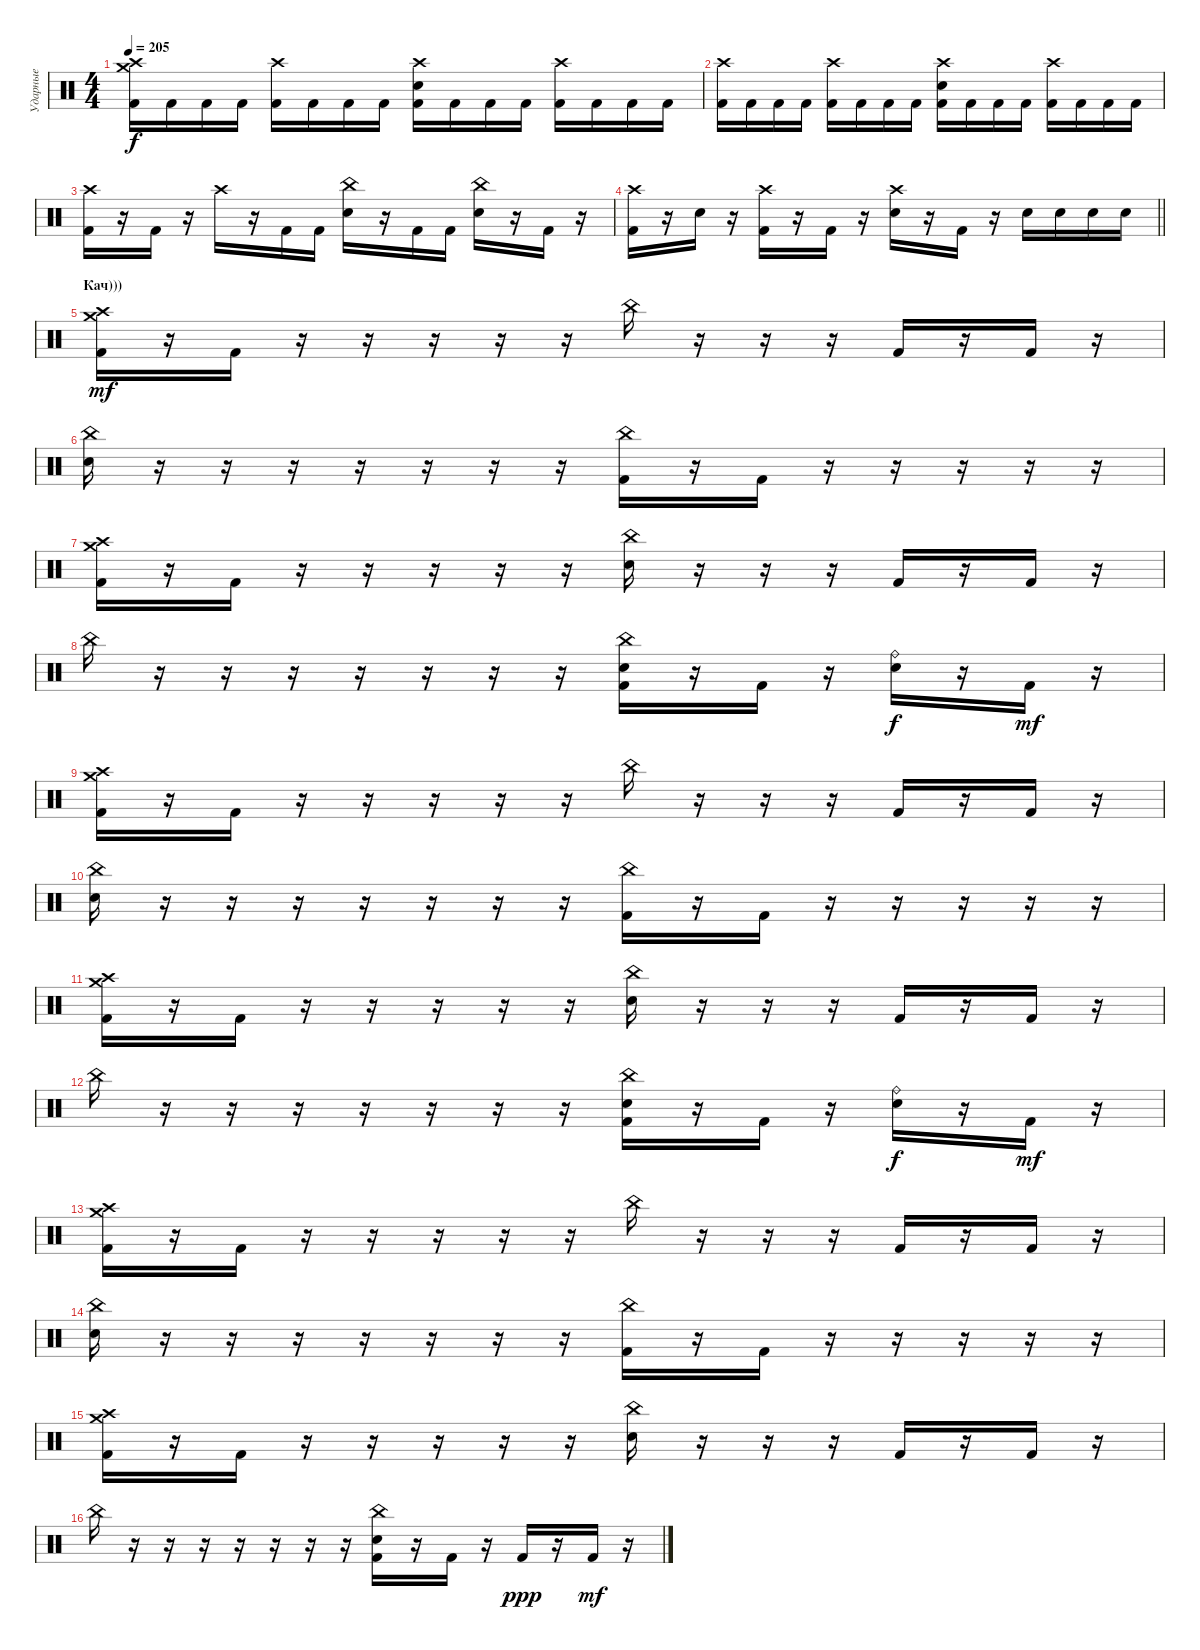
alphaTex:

\track ("Ударные" "Ударные") {instrument percussion}
\staff {score}
\articulation defaults
\ts (4 4)
\tempo 205
\clef neutral
\ks c
("Crash high (hit)" "Crash medium (hit)" "Kick (hit) 2").16{dy f} "Kick (hit) 2".16 "Kick (hit) 2".16 "Kick (hit) 2".16 ("Crash high (hit)" "Kick (hit) 2").16 "Kick (hit) 2".16 "Kick (hit) 2".16 "Kick (hit) 2".16 ("Crash high (hit)" "Electric Snare (hit)" "Kick (hit) 2").16 "Kick (hit) 2".16 "Kick (hit) 2".16 "Kick (hit) 2".16 ("Crash high (hit)" "Kick (hit) 2").16 "Kick (hit) 2".16 "Kick (hit) 2".16 "Kick (hit) 2".16 |
("Crash high (hit)" "Kick (hit) 2").16 "Kick (hit) 2".16 "Kick (hit) 2".16 "Kick (hit) 2".16 ("Crash high (hit)" "Kick (hit) 2").16 "Kick (hit) 2".16 "Kick (hit) 2".16 "Kick (hit) 2".16 ("Crash high (hit)" "Electric Snare (hit)" "Kick (hit) 2").16 "Kick (hit) 2".16 "Kick (hit) 2".16 "Kick (hit) 2".16 ("Crash high (hit)" "Kick (hit) 2").16 "Kick (hit) 2".16 "Kick (hit) 2".16 "Kick (hit) 2".16 |
("Crash high (hit)" "Kick (hit) 2").16 r.16 "Kick (hit) 2".16 r.16 "Crash high (hit)".16 r.16 "Kick (hit) 2".16 "Kick (hit) 2".16 ("China (hit)" "Electric Snare (hit)").16 r.16 "Kick (hit) 2".16 "Kick (hit) 2".16 ("China (hit)" "Electric Snare (hit)").16 r.16 "Kick (hit) 2".16 r.16 |
\barLineRight lightlight
("Crash high (hit)" "Kick (hit) 2").16 r.16 "Electric Snare (hit)".16 r.16 ("Crash high (hit)" "Kick (hit) 2").16 r.16 "Kick (hit) 2".16 r.16 ("Crash high (hit)" "Electric Snare (hit)").16 r.16 "Kick (hit) 2".16 r.16 "Electric Snare (hit)".16 "Electric Snare (hit)".16 "Electric Snare (hit)".16 "Electric Snare (hit)".16 |
\section ("" "Кач)))")
("Crash high (hit)" "Crash medium (hit)" "Kick (hit) 2").16{dy mf} r.16 "Kick (hit) 2".16 r.16 r.16 r.16 r.16 r.16 "China (hit)".16 r.16 r.16 r.16 "Kick (hit) 2".16 r.16 "Kick (hit) 2".16 r.16 |
("China (hit)" "Electric Snare (hit)").16 r.16 r.16 r.16 r.16 r.16 r.16 r.16 ("China (hit)" "Kick (hit) 2").16 r.16 "Kick (hit) 2".16 r.16 r.16 r.16 r.16 r.16 |
("Crash high (hit)" "Crash medium (hit)" "Kick (hit) 2").16 r.16 "Kick (hit) 2".16 r.16 r.16 r.16 r.16 r.16 ("China (hit)" "Electric Snare (hit)").16 r.16 r.16 r.16 "Kick (hit) 2".16 r.16 "Kick (hit) 2".16 r.16 |
"China (hit)".16 r.16 r.16 r.16 r.16 r.16 r.16 r.16 ("China (hit)" "Electric Snare (hit)" "Kick (hit) 2").16 r.16 "Kick (hit) 2".16 r.16 ("Ride (bell)" "Electric Snare (hit)").16{dy f} r.16 "Kick (hit) 2".16{dy mf} r.16 |
("Crash high (hit)" "Crash medium (hit)" "Kick (hit) 2").16 r.16 "Kick (hit) 2".16 r.16 r.16 r.16 r.16 r.16 "China (hit)".16 r.16 r.16 r.16 "Kick (hit) 2".16 r.16 "Kick (hit) 2".16 r.16 |
("China (hit)" "Electric Snare (hit)").16 r.16 r.16 r.16 r.16 r.16 r.16 r.16 ("China (hit)" "Kick (hit) 2").16 r.16 "Kick (hit) 2".16 r.16 r.16 r.16 r.16 r.16 |
("Crash high (hit)" "Crash medium (hit)" "Kick (hit) 2").16 r.16 "Kick (hit) 2".16 r.16 r.16 r.16 r.16 r.16 ("China (hit)" "Electric Snare (hit)").16 r.16 r.16 r.16 "Kick (hit) 2".16 r.16 "Kick (hit) 2".16 r.16 |
"China (hit)".16 r.16 r.16 r.16 r.16 r.16 r.16 r.16 ("China (hit)" "Electric Snare (hit)" "Kick (hit) 2").16 r.16 "Kick (hit) 2".16 r.16 ("Ride (bell)" "Electric Snare (hit)").16{dy f} r.16 "Kick (hit) 2".16{dy mf} r.16 |
("Crash high (hit)" "Crash medium (hit)" "Kick (hit) 2").16 r.16 "Kick (hit) 2".16 r.16 r.16 r.16 r.16 r.16 "China (hit)".16 r.16 r.16 r.16 "Kick (hit) 2".16 r.16 "Kick (hit) 2".16 r.16 |
("China (hit)" "Electric Snare (hit)").16 r.16 r.16 r.16 r.16 r.16 r.16 r.16 ("China (hit)" "Kick (hit) 2").16 r.16 "Kick (hit) 2".16 r.16 r.16 r.16 r.16 r.16 |
("Crash high (hit)" "Crash medium (hit)" "Kick (hit) 2").16 r.16 "Kick (hit) 2".16 r.16 r.16 r.16 r.16 r.16 ("China (hit)" "Electric Snare (hit)").16 r.16 r.16 r.16 "Kick (hit) 2".16 r.16 "Kick (hit) 2".16 r.16 |
"China (hit)".16 r.16 r.16 r.16 r.16 r.16 r.16 r.16 ("China (hit)" "Electric Snare (hit)" "Kick (hit) 2").16 r.16 "Kick (hit) 2".16 r.16 "Kick (hit) 2".16{dy ppp} r.16 "Kick (hit) 2".16{dy mf} r.16
